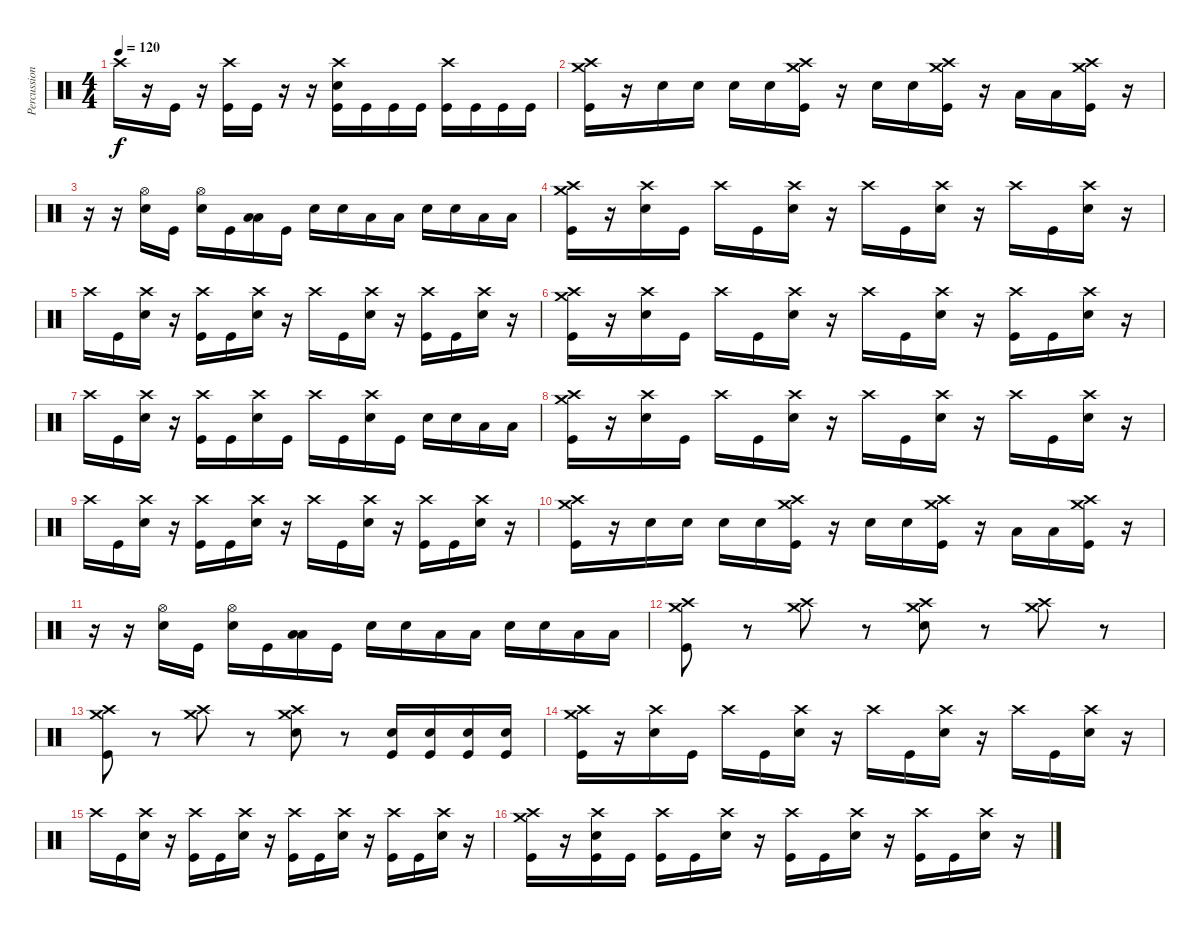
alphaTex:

\track ("Percussion" "Percussion") {instrument percussion}
\staff {score}
\articulation defaults
\ts (4 4)
\tempo 120
\clef neutral
\ks c "Crash high (hit)".16{dy f}
r.16 "Kick (hit)".16 r.16 ("Crash high (hit)" "Kick (hit)").16 "Kick (hit)".16 r.16 r.16 ("Crash high (hit)" "Snare (hit) 2" "Kick (hit)").16 "Kick (hit)".16 "Kick (hit)".16 "Kick (hit)".16 ("Crash high (hit)" "Kick (hit)").16 "Kick (hit)".16 "Kick (hit)".16 "Kick (hit)".16 |
("Crash medium (hit)" "Crash high (hit)" "Kick (hit)").16 r.16 "Snare (hit) 2".16 "Snare (hit) 2".16 "Snare (hit) 2".16 "Snare (hit) 2".16 ("Crash medium (hit)" "Crash high (hit)" "Kick (hit)").16 r.16 "Snare (hit) 2".16 "Snare (hit) 2".16 ("Crash medium (hit)" "Crash high (hit)" "Kick (hit)").16 r.16 "Low Tom (hit)".16 "Low Tom (hit)".16 ("Crash medium (hit)" "Crash high (hit)" "Kick (hit)").16 r.16 |
r.16 r.16 ("Hi-Hat (open)" "Snare (hit) 2").16 "Kick (hit)".16 ("Hi-Hat (open)" "Snare (hit) 2").16 "Kick (hit)".16 ("Low Tom (hit)" "Low Floor Tom (hit)").16 "Kick (hit)".16 "Snare (hit) 2".16 "Snare (hit) 2".16 "Low Tom (hit)".16 "Low Tom (hit)".16 "Snare (hit) 2".16 "Snare (hit) 2".16 "Low Floor Tom (hit)".16 "Low Floor Tom (hit)".16 |
("Crash medium (hit)" "Crash high (hit)" "Kick (hit)").16 r.16 ("Crash high (hit)" "Snare (hit) 2").16 "Kick (hit)".16 "Crash high (hit)".16 "Kick (hit)".16 ("Crash high (hit)" "Snare (hit) 2").16 r.16 "Crash high (hit)".16 "Kick (hit)".16 ("Crash high (hit)" "Snare (hit) 2").16 r.16 "Crash high (hit)".16 "Kick (hit)".16 ("Crash high (hit)" "Snare (hit) 2").16 r.16 |
"Crash high (hit)".16 "Kick (hit)".16 ("Crash high (hit)" "Snare (hit) 2").16 r.16 ("Crash high (hit)" "Kick (hit)").16 "Kick (hit)".16 ("Crash high (hit)" "Snare (hit) 2").16 r.16 "Crash high (hit)".16 "Kick (hit)".16 ("Crash high (hit)" "Snare (hit) 2").16 r.16 ("Crash high (hit)" "Kick (hit)").16 "Kick (hit)".16 ("Crash high (hit)" "Snare (hit) 2").16 r.16 |
("Crash medium (hit)" "Crash high (hit)" "Kick (hit)").16 r.16 ("Crash high (hit)" "Snare (hit) 2").16 "Kick (hit)".16 "Crash high (hit)".16 "Kick (hit)".16 ("Crash high (hit)" "Snare (hit) 2").16 r.16 "Crash high (hit)".16 "Kick (hit)".16 ("Crash high (hit)" "Snare (hit) 2").16 r.16 ("Crash high (hit)" "Kick (hit)").16 "Kick (hit)".16 ("Crash high (hit)" "Snare (hit) 2").16 r.16 |
"Crash high (hit)".16 "Kick (hit)".16 ("Crash high (hit)" "Snare (hit) 2").16 r.16 ("Crash high (hit)" "Kick (hit)").16 "Kick (hit)".16 ("Crash high (hit)" "Snare (hit) 2").16 "Kick (hit)".16 "Crash high (hit)".16 "Kick (hit)".16 ("Crash high (hit)" "Snare (hit) 2").16 "Kick (hit)".16 "Snare (hit) 2".16 "Snare (hit) 2".16 "Low Tom (hit)".16 "Low Tom (hit)".16 |
("Crash medium (hit)" "Crash high (hit)" "Kick (hit)").16 r.16 ("Crash high (hit)" "Snare (hit) 2").16 "Kick (hit)".16 "Crash high (hit)".16 "Kick (hit)".16 ("Crash high (hit)" "Snare (hit) 2").16 r.16 "Crash high (hit)".16 "Kick (hit)".16 ("Crash high (hit)" "Snare (hit) 2").16 r.16 "Crash high (hit)".16 "Kick (hit)".16 ("Crash high (hit)" "Snare (hit) 2").16 r.16 |
"Crash high (hit)".16 "Kick (hit)".16 ("Crash high (hit)" "Snare (hit) 2").16 r.16 ("Crash high (hit)" "Kick (hit)").16 "Kick (hit)".16 ("Crash high (hit)" "Snare (hit) 2").16 r.16 "Crash high (hit)".16 "Kick (hit)".16 ("Crash high (hit)" "Snare (hit) 2").16 r.16 ("Crash high (hit)" "Kick (hit)").16 "Kick (hit)".16 ("Crash high (hit)" "Snare (hit) 2").16 r.16 |
("Crash medium (hit)" "Crash high (hit)" "Kick (hit)").16 r.16 "Snare (hit) 2".16 "Snare (hit) 2".16 "Snare (hit) 2".16 "Snare (hit) 2".16 ("Crash medium (hit)" "Crash high (hit)" "Kick (hit)").16 r.16 "Snare (hit) 2".16 "Snare (hit) 2".16 ("Crash medium (hit)" "Crash high (hit)" "Kick (hit)").16 r.16 "Low Tom (hit)".16 "Low Tom (hit)".16 ("Crash medium (hit)" "Crash high (hit)" "Kick (hit)").16 r.16 |
r.16 r.16 ("Hi-Hat (open)" "Snare (hit) 2").16 "Kick (hit)".16 ("Hi-Hat (open)" "Snare (hit) 2").16 "Kick (hit)".16 ("Low Tom (hit)" "Low Floor Tom (hit)").16 "Kick (hit)".16 "Snare (hit) 2".16 "Snare (hit) 2".16 "Low Tom (hit)".16 "Low Tom (hit)".16 "Snare (hit) 2".16 "Snare (hit) 2".16 "Low Floor Tom (hit)".16 "Low Floor Tom (hit)".16 |
("Crash medium (hit)" "Crash high (hit)" "Kick (hit)").8 r.8 ("Crash medium (hit)" "Crash high (hit)").8 r.8 ("Crash medium (hit)" "Crash high (hit)" "Snare (hit) 2").8 r.8 ("Crash medium (hit)" "Crash high (hit)").8 r.8 |
("Crash medium (hit)" "Crash high (hit)" "Kick (hit)").8 r.8 ("Crash medium (hit)" "Crash high (hit)").8 r.8 ("Crash medium (hit)" "Crash high (hit)" "Snare (hit) 2").8 r.8 ("Snare (hit) 2" "Kick (hit)").16 ("Snare (hit) 2" "Kick (hit)").16 ("Snare (hit) 2" "Kick (hit)").16 ("Snare (hit) 2" "Kick (hit)").16 |
("Crash medium (hit)" "Crash high (hit)" "Kick (hit)").16 r.16 ("Crash high (hit)" "Snare (hit) 2").16 "Kick (hit)".16 "Crash high (hit)".16 "Kick (hit)".16 ("Crash high (hit)" "Snare (hit) 2").16 r.16 "Crash high (hit)".16 "Kick (hit)".16 ("Crash high (hit)" "Snare (hit) 2").16 r.16 "Crash high (hit)".16 "Kick (hit)".16 ("Crash high (hit)" "Snare (hit) 2").16 r.16 |
"Crash high (hit)".16 "Kick (hit)".16 ("Crash high (hit)" "Snare (hit) 2").16 r.16 ("Crash high (hit)" "Kick (hit)").16 "Kick (hit)".16 ("Crash high (hit)" "Snare (hit) 2").16 r.16 ("Crash high (hit)" "Kick (hit)").16 "Kick (hit)".16 ("Crash high (hit)" "Snare (hit) 2").16 r.16 ("Crash high (hit)" "Kick (hit)").16 "Kick (hit)".16 ("Crash high (hit)" "Snare (hit) 2").16 r.16 |
("Crash medium (hit)" "Crash high (hit)" "Kick (hit)").16 r.16 ("Crash high (hit)" "Snare (hit) 2" "Kick (hit)").16 "Kick (hit)".16 ("Crash high (hit)" "Kick (hit)").16 "Kick (hit)".16 ("Crash high (hit)" "Snare (hit) 2").16 r.16 ("Crash high (hit)" "Kick (hit)").16 "Kick (hit)".16 ("Crash high (hit)" "Snare (hit) 2").16 r.16 ("Crash high (hit)" "Kick (hit)").16 "Kick (hit)".16 ("Crash high (hit)" "Snare (hit) 2").16 r.16
